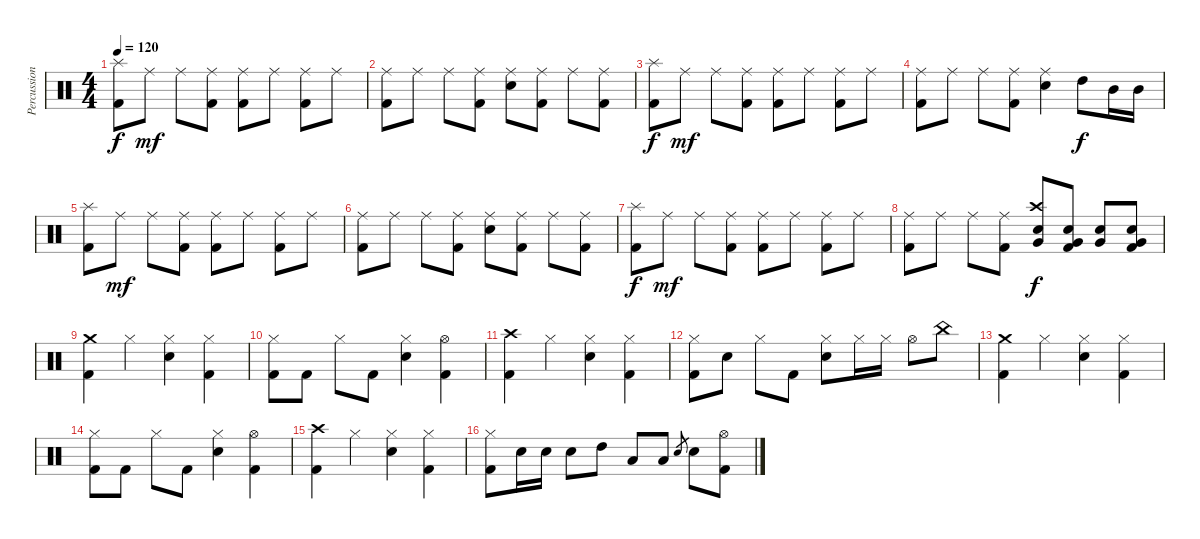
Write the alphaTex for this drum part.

\track ("Percussion" "Percussion") {instrument percussion}
\staff {score}
\articulation defaults
\ts (4 4)
\tempo 120
\clef neutral
\ks c
("Splash (hit)" "Kick (hit) 2").8{dy f} "Ride (middle)".8{dy mf} "Ride (middle)".8 ("Ride (middle)" "Kick (hit) 2").8 ("Ride (middle)" "Kick (hit) 2").8 "Ride (middle)".8 ("Ride (middle)" "Kick (hit) 2").8 "Ride (middle)".8 |
("Ride (middle)" "Kick (hit) 2").8 "Ride (middle)".8 "Ride (middle)".8 ("Ride (middle)" "Kick (hit) 2").8 ("Ride (middle)" "Electric Snare (hit)").8 ("Ride (middle)" "Kick (hit) 2").8 "Ride (middle)".8 ("Ride (middle)" "Kick (hit) 2").8 |
("Splash (hit)" "Kick (hit) 2").8{dy f} "Ride (middle)".8{dy mf} "Ride (middle)".8 ("Ride (middle)" "Kick (hit) 2").8 ("Ride (middle)" "Kick (hit) 2").8 "Ride (middle)".8 ("Ride (middle)" "Kick (hit) 2").8 "Ride (middle)".8 |
("Ride (middle)" "Kick (hit) 2").8 "Ride (middle)".8 "Ride (middle)".8 ("Ride (middle)" "Kick (hit) 2").8 ("Ride (middle)" "Electric Snare (hit)").4 "High Tom (hit)".8{dy f} "Mid Tom (hit)".16 "Mid Tom (hit)".16 |
("Splash (hit)" "Kick (hit) 2").8 "Ride (middle)".8{dy mf} "Ride (middle)".8 ("Ride (middle)" "Kick (hit) 2").8 ("Ride (middle)" "Kick (hit) 2").8 "Ride (middle)".8 ("Ride (middle)" "Kick (hit) 2").8 "Ride (middle)".8 |
("Ride (middle)" "Kick (hit) 2").8 "Ride (middle)".8 "Ride (middle)".8 ("Ride (middle)" "Kick (hit) 2").8 ("Ride (middle)" "Electric Snare (hit)").8 ("Ride (middle)" "Kick (hit) 2").8 "Ride (middle)".8 ("Ride (middle)" "Kick (hit) 2").8 |
("Splash (hit)" "Kick (hit) 2").8{dy f} "Ride (middle)".8{dy mf} "Ride (middle)".8 ("Ride (middle)" "Kick (hit) 2").8 ("Ride (middle)" "Kick (hit) 2").8 "Ride (middle)".8 ("Ride (middle)" "Kick (hit) 2").8 "Ride (middle)".8 |
("Ride (middle)" "Kick (hit) 2").8 "Ride (middle)".8 "Ride (middle)".8 ("Ride (middle)" "Kick (hit) 2").8 ("Crash high (hit)" "Electric Snare (hit)" "Very Low Tom (hit)").8{dy f} ("Electric Snare (hit)" "Very Low Tom (hit)" "Kick (hit) 2").8 ("Electric Snare (hit)" "Very Low Tom (hit)").8 ("Electric Snare (hit)" "Very Low Tom (hit)" "Kick (hit) 2").8 |
("Crash medium (hit)" "Kick (hit) 2").4 "Hi-Hat (closed)".4 ("Hi-Hat (closed)" "Electric Snare (hit)").4 ("Hi-Hat (closed)" "Kick (hit) 2").4 |
("Hi-Hat (closed)" "Kick (hit) 2").8 "Kick (hit) 2".8 "Hi-Hat (closed)".8 "Kick (hit) 2".8 ("Hi-Hat (closed)" "Electric Snare (hit)").4 ("Hi-Hat (open)" "Kick (hit) 2").4 |
("Crash high (hit)" "Kick (hit) 2").4 "Hi-Hat (closed)".4 ("Hi-Hat (closed)" "Electric Snare (hit)").4 ("Hi-Hat (closed)" "Kick (hit) 2").4 |
("Hi-Hat (closed)" "Kick (hit) 2").8 "Electric Snare (hit)".8 "Hi-Hat (closed)".8 "Kick (hit) 2".8 ("Hi-Hat (closed)" "Electric Snare (hit)").8 "Hi-Hat (closed)".16 "Hi-Hat (closed)".16 "Hi-Hat (open)".8 "China (hit)".8 |
("Crash medium (hit)" "Kick (hit) 2").4 "Hi-Hat (closed)".4 ("Hi-Hat (closed)" "Electric Snare (hit)").4 ("Hi-Hat (closed)" "Kick (hit) 2").4 |
("Hi-Hat (closed)" "Kick (hit) 2").8 "Kick (hit) 2".8 "Hi-Hat (closed)".8 "Kick (hit) 2".8 ("Hi-Hat (closed)" "Electric Snare (hit)").4 ("Hi-Hat (open)" "Kick (hit) 2").4 |
("Crash high (hit)" "Kick (hit) 2").4 "Hi-Hat (closed)".4 ("Hi-Hat (closed)" "Electric Snare (hit)").4 ("Hi-Hat (closed)" "Kick (hit) 2").4 |
("Hi-Hat (closed)" "Kick (hit) 2").8 "Electric Snare (hit)".16 "Electric Snare (hit)".16 "Electric Snare (hit)".8 "High Tom (hit)".8 "Low Tom (hit)".8 "Low Tom (hit)".8 "Electric Snare (hit)".8{gr} "Electric Snare (hit)".8 ("Hi-Hat (open)" "Kick (hit) 2").8
